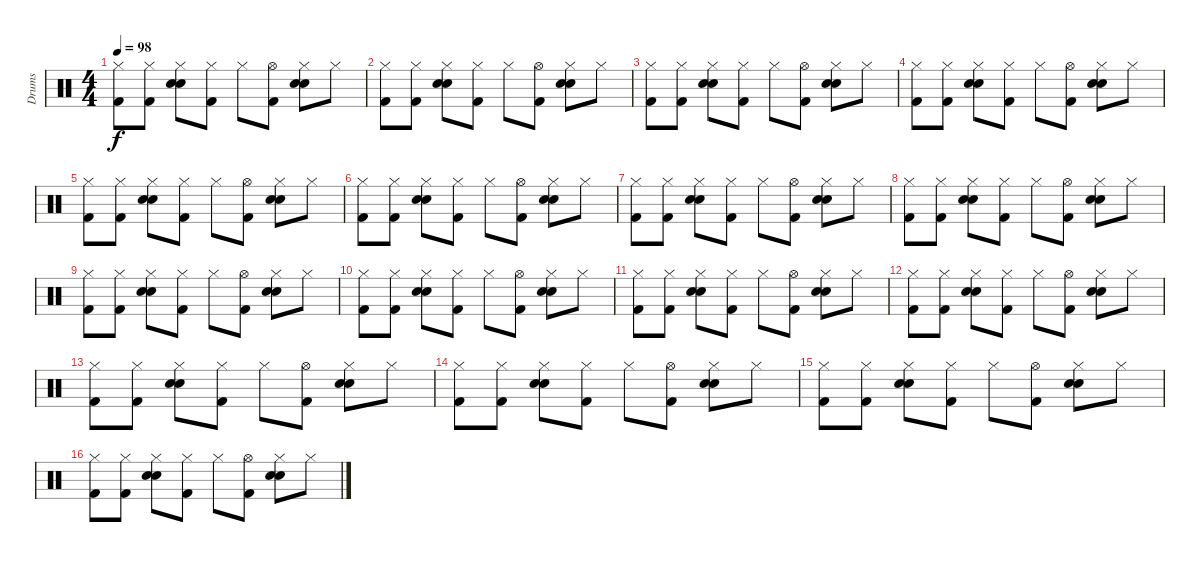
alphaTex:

\track ("Drums" "Drums") {instrument percussion}
\staff {score}
\articulation defaults
\ts (4 4)
\tempo 98
\clef neutral
\ks c
("Hi-Hat (closed)" "Kick (hit) 2").8{dy f} ("Hi-Hat (closed)" "Kick (hit) 2").8 ("Hand Clap (hit)" "Hi-Hat (closed)" "Snare (hit) 2").8 ("Hi-Hat (closed)" "Kick (hit) 2").8 "Hi-Hat (closed)".8 ("Hi-Hat (open)" "Kick (hit) 2").8 ("Hand Clap (hit)" "Hi-Hat (closed)" "Snare (hit) 2").8 "Hi-Hat (closed)".8 |
("Hi-Hat (closed)" "Kick (hit) 2").8 ("Hi-Hat (closed)" "Kick (hit) 2").8 ("Hand Clap (hit)" "Hi-Hat (closed)" "Snare (hit) 2").8 ("Hi-Hat (closed)" "Kick (hit) 2").8 "Hi-Hat (closed)".8 ("Hi-Hat (open)" "Kick (hit) 2").8 ("Hand Clap (hit)" "Hi-Hat (closed)" "Snare (hit) 2").8 "Hi-Hat (closed)".8 |
("Hi-Hat (closed)" "Kick (hit) 2").8 ("Hi-Hat (closed)" "Kick (hit) 2").8 ("Hand Clap (hit)" "Hi-Hat (closed)" "Snare (hit) 2").8 ("Hi-Hat (closed)" "Kick (hit) 2").8 "Hi-Hat (closed)".8 ("Hi-Hat (open)" "Kick (hit) 2").8 ("Hand Clap (hit)" "Hi-Hat (closed)" "Snare (hit) 2").8 "Hi-Hat (closed)".8 |
("Hi-Hat (closed)" "Kick (hit) 2").8 ("Hi-Hat (closed)" "Kick (hit) 2").8 ("Hand Clap (hit)" "Hi-Hat (closed)" "Snare (hit) 2").8 ("Hi-Hat (closed)" "Kick (hit) 2").8 "Hi-Hat (closed)".8 ("Hi-Hat (open)" "Kick (hit) 2").8 ("Hand Clap (hit)" "Hi-Hat (closed)" "Snare (hit) 2").8 "Hi-Hat (closed)".8 |
("Hi-Hat (closed)" "Kick (hit) 2").8 ("Hi-Hat (closed)" "Kick (hit) 2").8 ("Hand Clap (hit)" "Hi-Hat (closed)" "Snare (hit) 2").8 ("Hi-Hat (closed)" "Kick (hit) 2").8 "Hi-Hat (closed)".8 ("Hi-Hat (open)" "Kick (hit) 2").8 ("Hand Clap (hit)" "Hi-Hat (closed)" "Snare (hit) 2").8 "Hi-Hat (closed)".8 |
("Hi-Hat (closed)" "Kick (hit) 2").8 ("Hi-Hat (closed)" "Kick (hit) 2").8 ("Hand Clap (hit)" "Hi-Hat (closed)" "Snare (hit) 2").8 ("Hi-Hat (closed)" "Kick (hit) 2").8 "Hi-Hat (closed)".8 ("Hi-Hat (open)" "Kick (hit) 2").8 ("Hand Clap (hit)" "Hi-Hat (closed)" "Snare (hit) 2").8 "Hi-Hat (closed)".8 |
("Hi-Hat (closed)" "Kick (hit) 2").8 ("Hi-Hat (closed)" "Kick (hit) 2").8 ("Hand Clap (hit)" "Hi-Hat (closed)" "Snare (hit) 2").8 ("Hi-Hat (closed)" "Kick (hit) 2").8 "Hi-Hat (closed)".8 ("Hi-Hat (open)" "Kick (hit) 2").8 ("Hand Clap (hit)" "Hi-Hat (closed)" "Snare (hit) 2").8 "Hi-Hat (closed)".8 |
("Hi-Hat (closed)" "Kick (hit) 2").8 ("Hi-Hat (closed)" "Kick (hit) 2").8 ("Hand Clap (hit)" "Hi-Hat (closed)" "Snare (hit) 2").8 ("Hi-Hat (closed)" "Kick (hit) 2").8 "Hi-Hat (closed)".8 ("Hi-Hat (open)" "Kick (hit) 2").8 ("Hand Clap (hit)" "Hi-Hat (closed)" "Snare (hit) 2").8 "Hi-Hat (closed)".8 |
("Hi-Hat (closed)" "Kick (hit) 2").8 ("Hi-Hat (closed)" "Kick (hit) 2").8 ("Hand Clap (hit)" "Hi-Hat (closed)" "Snare (hit) 2").8 ("Hi-Hat (closed)" "Kick (hit) 2").8 "Hi-Hat (closed)".8 ("Hi-Hat (open)" "Kick (hit) 2").8 ("Hand Clap (hit)" "Hi-Hat (closed)" "Snare (hit) 2").8 "Hi-Hat (closed)".8 |
("Hi-Hat (closed)" "Kick (hit) 2").8 ("Hi-Hat (closed)" "Kick (hit) 2").8 ("Hand Clap (hit)" "Hi-Hat (closed)" "Snare (hit) 2").8 ("Hi-Hat (closed)" "Kick (hit) 2").8 "Hi-Hat (closed)".8 ("Hi-Hat (open)" "Kick (hit) 2").8 ("Hand Clap (hit)" "Hi-Hat (closed)" "Snare (hit) 2").8 "Hi-Hat (closed)".8 |
("Hi-Hat (closed)" "Kick (hit) 2").8 ("Hi-Hat (closed)" "Kick (hit) 2").8 ("Hand Clap (hit)" "Hi-Hat (closed)" "Snare (hit) 2").8 ("Hi-Hat (closed)" "Kick (hit) 2").8 "Hi-Hat (closed)".8 ("Hi-Hat (open)" "Kick (hit) 2").8 ("Hand Clap (hit)" "Hi-Hat (closed)" "Snare (hit) 2").8 "Hi-Hat (closed)".8 |
("Hi-Hat (closed)" "Kick (hit) 2").8 ("Hi-Hat (closed)" "Kick (hit) 2").8 ("Hand Clap (hit)" "Hi-Hat (closed)" "Snare (hit) 2").8 ("Hi-Hat (closed)" "Kick (hit) 2").8 "Hi-Hat (closed)".8 ("Hi-Hat (open)" "Kick (hit) 2").8 ("Hand Clap (hit)" "Hi-Hat (closed)" "Snare (hit) 2").8 "Hi-Hat (closed)".8 |
("Hi-Hat (closed)" "Kick (hit) 2").8 ("Hi-Hat (closed)" "Kick (hit) 2").8 ("Hand Clap (hit)" "Hi-Hat (closed)" "Snare (hit) 2").8 ("Hi-Hat (closed)" "Kick (hit) 2").8 "Hi-Hat (closed)".8 ("Hi-Hat (open)" "Kick (hit) 2").8 ("Hand Clap (hit)" "Hi-Hat (closed)" "Snare (hit) 2").8 "Hi-Hat (closed)".8 |
("Hi-Hat (closed)" "Kick (hit) 2").8 ("Hi-Hat (closed)" "Kick (hit) 2").8 ("Hand Clap (hit)" "Hi-Hat (closed)" "Snare (hit) 2").8 ("Hi-Hat (closed)" "Kick (hit) 2").8 "Hi-Hat (closed)".8 ("Hi-Hat (open)" "Kick (hit) 2").8 ("Hand Clap (hit)" "Hi-Hat (closed)" "Snare (hit) 2").8 "Hi-Hat (closed)".8 |
("Hi-Hat (closed)" "Kick (hit) 2").8 ("Hi-Hat (closed)" "Kick (hit) 2").8 ("Hand Clap (hit)" "Hi-Hat (closed)" "Snare (hit) 2").8 ("Hi-Hat (closed)" "Kick (hit) 2").8 "Hi-Hat (closed)".8 ("Hi-Hat (open)" "Kick (hit) 2").8 ("Hand Clap (hit)" "Hi-Hat (closed)" "Snare (hit) 2").8 "Hi-Hat (closed)".8 |
("Hi-Hat (closed)" "Kick (hit) 2").8 ("Hi-Hat (closed)" "Kick (hit) 2").8 ("Hand Clap (hit)" "Hi-Hat (closed)" "Snare (hit) 2").8 ("Hi-Hat (closed)" "Kick (hit) 2").8 "Hi-Hat (closed)".8 ("Hi-Hat (open)" "Kick (hit) 2").8 ("Hand Clap (hit)" "Hi-Hat (closed)" "Snare (hit) 2").8 "Hi-Hat (closed)".8
